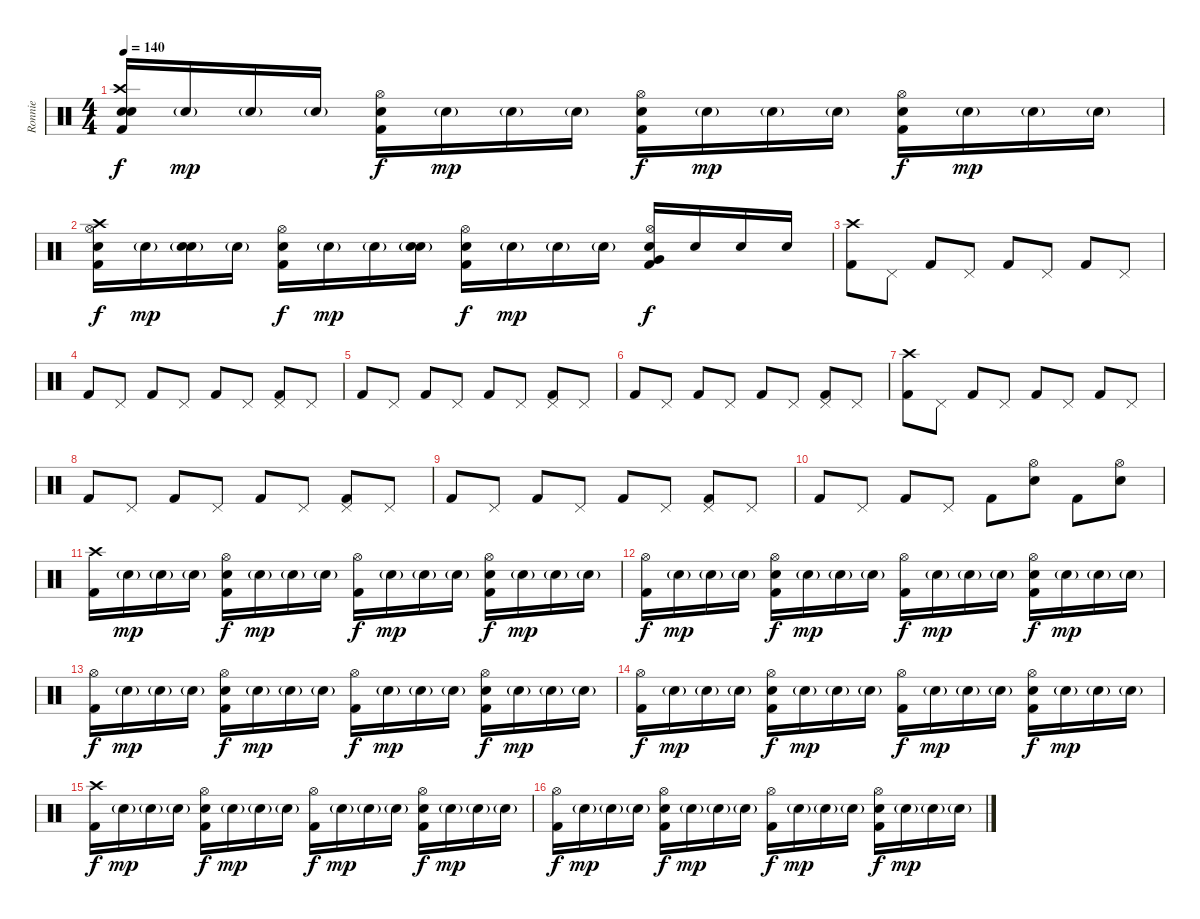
\track ("Ronnie" "Ronnie") {instrument percussion}
\staff {score}
\articulation defaults
\ts (4 4)
\tempo 140
\clef neutral
\ks c
("Electric Snare (hit)" "Crash high (hit)" "Kick (hit) 2" "Electric Snare (hit)").16{dy f} "Electric Snare (hit)"{g}.16{dy mp} "Electric Snare (hit)"{g}.16 "Electric Snare (hit)"{g}.16 ("Electric Snare (hit)" "Hi-Hat (open)" "Kick (hit) 2").16{dy f} "Electric Snare (hit)"{g}.16{dy mp} "Electric Snare (hit)"{g}.16 "Electric Snare (hit)"{g}.16 ("Electric Snare (hit)" "Hi-Hat (open)" "Kick (hit) 2").16{dy f} "Electric Snare (hit)"{g}.16{dy mp} "Electric Snare (hit)"{g}.16 "Electric Snare (hit)"{g}.16 ("Electric Snare (hit)" "Hi-Hat (open)" "Kick (hit) 2").16{dy f} "Electric Snare (hit)"{g}.16{dy mp} "Electric Snare (hit)"{g}.16 "Electric Snare (hit)"{g}.16 |
("Electric Snare (hit)" "Hi-Hat (open)" "Kick (hit) 2" "Crash high (hit)").16{dy f} "Electric Snare (hit)"{g}.16{dy mp} ("Electric Snare (hit)"{g} "Electric Snare (hit)").16 "Electric Snare (hit)"{g}.16 ("Electric Snare (hit)" "Hi-Hat (open)" "Kick (hit) 2").16{dy f} "Electric Snare (hit)"{g}.16{dy mp} "Electric Snare (hit)"{g}.16 ("Electric Snare (hit)"{g} "Electric Snare (hit)").16 ("Electric Snare (hit)" "Hi-Hat (open)" "Kick (hit) 2").16{dy f} "Electric Snare (hit)"{g}.16{dy mp} "Electric Snare (hit)"{g}.16 "Electric Snare (hit)"{g}.16 ("Electric Snare (hit)" "Hi-Hat (open)" "Kick (hit) 2" "Very Low Tom (hit)").16{dy f} "Electric Snare (hit)".16 "Electric Snare (hit)".16 "Electric Snare (hit)".16 |
("Kick (hit) 2" "Crash high (hit)").8 "Pedal Hi-Hat (hit)".8 "Kick (hit) 2".8 "Pedal Hi-Hat (hit)".8 "Kick (hit) 2".8 "Pedal Hi-Hat (hit)".8 "Kick (hit) 2".8 "Pedal Hi-Hat (hit)".8 |
"Kick (hit) 2".8 "Pedal Hi-Hat (hit)".8 "Kick (hit) 2".8 "Pedal Hi-Hat (hit)".8 "Kick (hit) 2".8 "Pedal Hi-Hat (hit)".8 ("Pedal Hi-Hat (hit)" "Kick (hit) 2").8 "Pedal Hi-Hat (hit)".8 |
"Kick (hit) 2".8 "Pedal Hi-Hat (hit)".8 "Kick (hit) 2".8 "Pedal Hi-Hat (hit)".8 "Kick (hit) 2".8 "Pedal Hi-Hat (hit)".8 ("Pedal Hi-Hat (hit)" "Kick (hit) 2").8 "Pedal Hi-Hat (hit)".8 |
"Kick (hit) 2".8 "Pedal Hi-Hat (hit)".8 "Kick (hit) 2".8 "Pedal Hi-Hat (hit)".8 "Kick (hit) 2".8 "Pedal Hi-Hat (hit)".8 ("Pedal Hi-Hat (hit)" "Kick (hit) 2").8 "Pedal Hi-Hat (hit)".8 |
("Kick (hit) 2" "Crash high (hit)").8 "Pedal Hi-Hat (hit)".8 "Kick (hit) 2".8 "Pedal Hi-Hat (hit)".8 "Kick (hit) 2".8 "Pedal Hi-Hat (hit)".8 "Kick (hit) 2".8 "Pedal Hi-Hat (hit)".8 |
"Kick (hit) 2".8 "Pedal Hi-Hat (hit)".8 "Kick (hit) 2".8 "Pedal Hi-Hat (hit)".8 "Kick (hit) 2".8 "Pedal Hi-Hat (hit)".8 ("Pedal Hi-Hat (hit)" "Kick (hit) 2").8 "Pedal Hi-Hat (hit)".8 |
"Kick (hit) 2".8 "Pedal Hi-Hat (hit)".8 "Kick (hit) 2".8 "Pedal Hi-Hat (hit)".8 "Kick (hit) 2".8 "Pedal Hi-Hat (hit)".8 ("Pedal Hi-Hat (hit)" "Kick (hit) 2").8 "Pedal Hi-Hat (hit)".8 |
"Kick (hit) 2".8 "Pedal Hi-Hat (hit)".8 "Kick (hit) 2".8 "Pedal Hi-Hat (hit)".8 "Kick (hit) 2".8 ("Hi-Hat (open)" "Electric Snare (hit)").8 "Kick (hit) 2".8 ("Hi-Hat (open)" "Electric Snare (hit)").8 |
("Crash high (hit)" "Kick (hit) 2").16 "Electric Snare (hit)"{g}.16{dy mp} "Electric Snare (hit)"{g}.16 "Electric Snare (hit)"{g}.16 ("Hi-Hat (open)" "Electric Snare (hit)" "Kick (hit) 2").16{dy f} "Electric Snare (hit)"{g}.16{dy mp} "Electric Snare (hit)"{g}.16 "Electric Snare (hit)"{g}.16 ("Hi-Hat (open)" "Kick (hit) 2").16{dy f} "Electric Snare (hit)"{g}.16{dy mp} "Electric Snare (hit)"{g}.16 "Electric Snare (hit)"{g}.16 ("Hi-Hat (open)" "Electric Snare (hit)" "Kick (hit) 2").16{dy f} "Electric Snare (hit)"{g}.16{dy mp} "Electric Snare (hit)"{g}.16 "Electric Snare (hit)"{g}.16 |
("Hi-Hat (open)" "Kick (hit) 2").16{dy f} "Electric Snare (hit)"{g}.16{dy mp} "Electric Snare (hit)"{g}.16 "Electric Snare (hit)"{g}.16 ("Hi-Hat (open)" "Electric Snare (hit)" "Kick (hit) 2").16{dy f} "Electric Snare (hit)"{g}.16{dy mp} "Electric Snare (hit)"{g}.16 "Electric Snare (hit)"{g}.16 ("Hi-Hat (open)" "Kick (hit) 2").16{dy f} "Electric Snare (hit)"{g}.16{dy mp} "Electric Snare (hit)"{g}.16 "Electric Snare (hit)"{g}.16 ("Hi-Hat (open)" "Electric Snare (hit)" "Kick (hit) 2").16{dy f} "Electric Snare (hit)"{g}.16{dy mp} "Electric Snare (hit)"{g}.16 "Electric Snare (hit)"{g}.16 |
("Hi-Hat (open)" "Kick (hit) 2").16{dy f} "Electric Snare (hit)"{g}.16{dy mp} "Electric Snare (hit)"{g}.16 "Electric Snare (hit)"{g}.16 ("Hi-Hat (open)" "Electric Snare (hit)" "Kick (hit) 2").16{dy f} "Electric Snare (hit)"{g}.16{dy mp} "Electric Snare (hit)"{g}.16 "Electric Snare (hit)"{g}.16 ("Hi-Hat (open)" "Kick (hit) 2").16{dy f} "Electric Snare (hit)"{g}.16{dy mp} "Electric Snare (hit)"{g}.16 "Electric Snare (hit)"{g}.16 ("Hi-Hat (open)" "Electric Snare (hit)" "Kick (hit) 2").16{dy f} "Electric Snare (hit)"{g}.16{dy mp} "Electric Snare (hit)"{g}.16 "Electric Snare (hit)"{g}.16 |
("Hi-Hat (open)" "Kick (hit) 2").16{dy f} "Electric Snare (hit)"{g}.16{dy mp} "Electric Snare (hit)"{g}.16 "Electric Snare (hit)"{g}.16 ("Hi-Hat (open)" "Electric Snare (hit)" "Kick (hit) 2").16{dy f} "Electric Snare (hit)"{g}.16{dy mp} "Electric Snare (hit)"{g}.16 "Electric Snare (hit)"{g}.16 ("Hi-Hat (open)" "Kick (hit) 2").16{dy f} "Electric Snare (hit)"{g}.16{dy mp} "Electric Snare (hit)"{g}.16 "Electric Snare (hit)"{g}.16 ("Hi-Hat (open)" "Electric Snare (hit)" "Kick (hit) 2").16{dy f} "Electric Snare (hit)"{g}.16{dy mp} "Electric Snare (hit)"{g}.16 "Electric Snare (hit)"{g}.16 |
("Crash high (hit)" "Kick (hit) 2").16{dy f} "Electric Snare (hit)"{g}.16{dy mp} "Electric Snare (hit)"{g}.16 "Electric Snare (hit)"{g}.16 ("Hi-Hat (open)" "Electric Snare (hit)" "Kick (hit) 2").16{dy f} "Electric Snare (hit)"{g}.16{dy mp} "Electric Snare (hit)"{g}.16 "Electric Snare (hit)"{g}.16 ("Hi-Hat (open)" "Kick (hit) 2").16{dy f} "Electric Snare (hit)"{g}.16{dy mp} "Electric Snare (hit)"{g}.16 "Electric Snare (hit)"{g}.16 ("Hi-Hat (open)" "Electric Snare (hit)" "Kick (hit) 2").16{dy f} "Electric Snare (hit)"{g}.16{dy mp} "Electric Snare (hit)"{g}.16 "Electric Snare (hit)"{g}.16 |
("Hi-Hat (open)" "Kick (hit) 2").16{dy f} "Electric Snare (hit)"{g}.16{dy mp} "Electric Snare (hit)"{g}.16 "Electric Snare (hit)"{g}.16 ("Hi-Hat (open)" "Electric Snare (hit)" "Kick (hit) 2").16{dy f} "Electric Snare (hit)"{g}.16{dy mp} "Electric Snare (hit)"{g}.16 "Electric Snare (hit)"{g}.16 ("Hi-Hat (open)" "Kick (hit) 2").16{dy f} "Electric Snare (hit)"{g}.16{dy mp} "Electric Snare (hit)"{g}.16 "Electric Snare (hit)"{g}.16 ("Hi-Hat (open)" "Electric Snare (hit)" "Kick (hit) 2").16{dy f} "Electric Snare (hit)"{g}.16{dy mp} "Electric Snare (hit)"{g}.16 "Electric Snare (hit)"{g}.16
